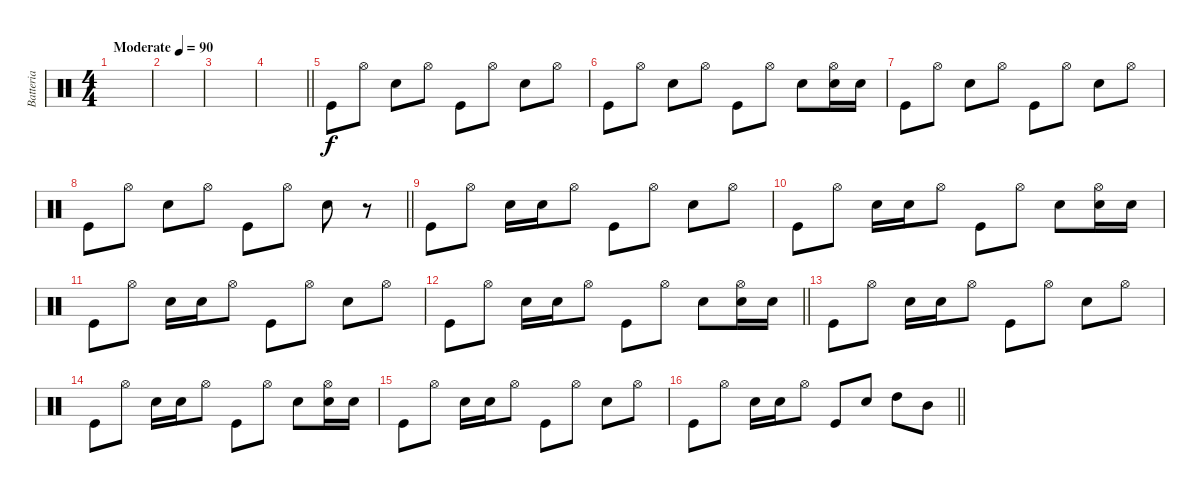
\track ("Batteria" "Batteria") {instrument percussion}
\staff {score}
\articulation defaults
\ts (4 4)
\tempo (90 "Moderate")
\clef neutral
\ks c
|
|
|
\barLineRight lightlight
|
"Kick (hit)".8 "Hi-Hat (open)".8 "Snare (hit) 2".8 "Hi-Hat (open)".8 "Kick (hit)".8 "Hi-Hat (open)".8 "Snare (hit) 2".8 "Hi-Hat (open)".8 |
"Kick (hit)".8 "Hi-Hat (open)".8 "Snare (hit) 2".8 "Hi-Hat (open)".8 "Kick (hit)".8 "Hi-Hat (open)".8 "Snare (hit) 2".8 ("Hi-Hat (open)" "Snare (hit) 2").16 "Snare (hit) 2".16 |
"Kick (hit)".8 "Hi-Hat (open)".8 "Snare (hit) 2".8 "Hi-Hat (open)".8 "Kick (hit)".8 "Hi-Hat (open)".8 "Snare (hit) 2".8 "Hi-Hat (open)".8 |
\barLineRight lightlight "Kick (hit)".8 "Hi-Hat (open)".8 "Snare (hit) 2".8 "Hi-Hat (open)".8 "Kick (hit)".8 "Hi-Hat (open)".8 "Snare (hit) 2".8
r.8 |
"Kick (hit)".8 "Hi-Hat (open)".8 "Snare (hit) 2".16 "Snare (hit) 2".16 "Hi-Hat (open)".8 "Kick (hit)".8 "Hi-Hat (open)".8 "Snare (hit) 2".8 "Hi-Hat (open)".8 |
"Kick (hit)".8 "Hi-Hat (open)".8 "Snare (hit) 2".16 "Snare (hit) 2".16 "Hi-Hat (open)".8 "Kick (hit)".8 "Hi-Hat (open)".8 "Snare (hit) 2".8 ("Hi-Hat (open)" "Snare (hit) 2").16 "Snare (hit) 2".16 |
"Kick (hit)".8 "Hi-Hat (open)".8 "Snare (hit) 2".16 "Snare (hit) 2".16 "Hi-Hat (open)".8 "Kick (hit)".8 "Hi-Hat (open)".8 "Snare (hit) 2".8 "Hi-Hat (open)".8 |
\barLineRight lightlight "Kick (hit)".8 "Hi-Hat (open)".8 "Snare (hit) 2".16 "Snare (hit) 2".16 "Hi-Hat (open)".8 "Kick (hit)".8 "Hi-Hat (open)".8 "Snare (hit) 2".8
("Hi-Hat (open)" "Snare (hit) 2").16 "Snare (hit) 2".16 |
"Kick (hit)".8 "Hi-Hat (open)".8 "Snare (hit) 2".16 "Snare (hit) 2".16 "Hi-Hat (open)".8 "Kick (hit)".8 "Hi-Hat (open)".8 "Snare (hit) 2".8 "Hi-Hat (open)".8 |
"Kick (hit)".8 "Hi-Hat (open)".8 "Snare (hit) 2".16 "Snare (hit) 2".16 "Hi-Hat (open)".8 "Kick (hit)".8 "Hi-Hat (open)".8 "Snare (hit) 2".8 ("Hi-Hat (open)" "Snare (hit) 2").16 "Snare (hit) 2".16 |
"Kick (hit)".8 "Hi-Hat (open)".8 "Snare (hit) 2".16 "Snare (hit) 2".16 "Hi-Hat (open)".8 "Kick (hit)".8 "Hi-Hat (open)".8 "Snare (hit) 2".8 "Hi-Hat (open)".8 |
\barLineRight lightlight "Kick (hit)".8 "Hi-Hat (open)".8 "Snare (hit) 2".16 "Snare (hit) 2".16 "Hi-Hat (open)".8 "Kick (hit)".8 "Snare (hit) 2".8 "High Tom (hit)".8 "Mid Tom (hit)".8
